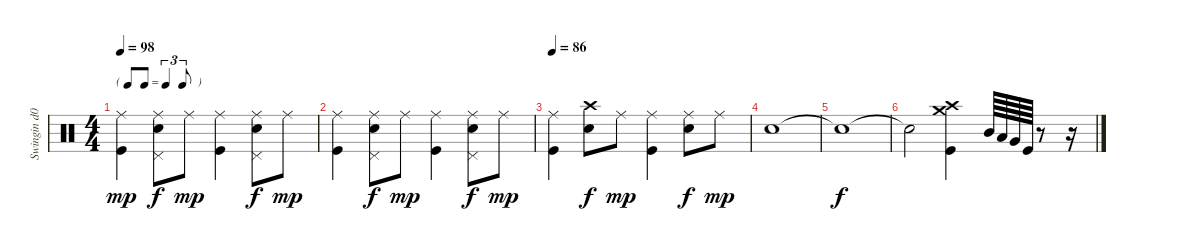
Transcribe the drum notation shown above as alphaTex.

\track ("Swingin d00d" "Swingin d0") {instrument percussion}
\staff {score}
\articulation defaults
\ts (4 4)
\tf triplet8th
\tempo 98
\clef neutral
\ks c
("Ride (middle)" "Kick (hit)").4{dy mp} ("Ride (middle)" "Pedal Hi-Hat (hit)" "Electric Snare (hit)").8{dy f} "Ride (middle)".8{dy mp} ("Ride (middle)" "Kick (hit)").4 ("Ride (middle)" "Pedal Hi-Hat (hit)" "Electric Snare (hit)").8{dy f} "Ride (middle)".8{dy mp} |
("Ride (middle)" "Kick (hit)").4 ("Ride (middle)" "Pedal Hi-Hat (hit)" "Electric Snare (hit)").8{dy f} "Ride (middle)".8{dy mp} ("Ride (middle)" "Kick (hit)").4 ("Ride (middle)" "Pedal Hi-Hat (hit)" "Electric Snare (hit)").8{dy f} "Ride (middle)".8{dy mp} |
\tempo 86
("Ride (middle)" "Kick (hit)").4 ("Crash high (hit)" "Electric Snare (hit)").8{dy f} "Ride (middle)".8{dy mp} ("Ride (middle)" "Kick (hit)").4 ("Ride (middle)" "Electric Snare (hit)").8{dy f} "Ride (middle)".8{dy mp} |
"Electric Snare (hit)"{tr (40 64)}.1 |
"Electric Snare (hit)"{t}.1{dy f} |
"Snare (hit)"{t}.2 ("Crash medium (hit)" "Crash high (hit)" "Kick (hit)").4 "Mid Tom (hit)".64 "Low Tom (hit)".64 "Very Low Tom (hit)".64 "Kick (hit)".64 r.8 r.16
